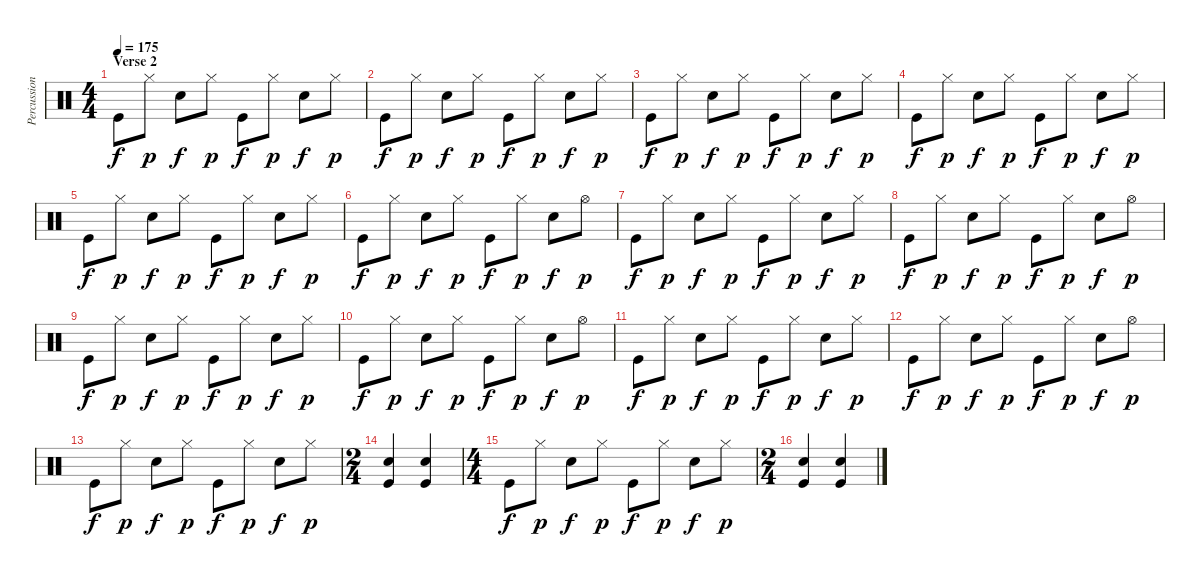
\track ("Percussion" "Percussion") {instrument percussion}
\staff {score}
\articulation defaults
\ts (4 4)
\section ("" "Verse 2")
\tempo 175
\clef neutral
\ks c "Kick (hit)".8{dy f} "Hi-Hat (closed)".8{dy p} "Snare (hit) 2".8{dy f} "Hi-Hat (closed)".8{dy p} "Kick (hit)".8{dy f} "Hi-Hat (closed)".8{dy p} "Snare (hit) 2".8{dy f} "Hi-Hat (closed)".8{dy p}
|
"Kick (hit)".8{dy f} "Hi-Hat (closed)".8{dy p} "Snare (hit) 2".8{dy f} "Hi-Hat (closed)".8{dy p} "Kick (hit)".8{dy f} "Hi-Hat (closed)".8{dy p} "Snare (hit) 2".8{dy f} "Hi-Hat (closed)".8{dy p} |
"Kick (hit)".8{dy f} "Hi-Hat (closed)".8{dy p} "Snare (hit) 2".8{dy f} "Hi-Hat (closed)".8{dy p} "Kick (hit)".8{dy f} "Hi-Hat (closed)".8{dy p} "Snare (hit) 2".8{dy f} "Hi-Hat (closed)".8{dy p} |
"Kick (hit)".8{dy f} "Hi-Hat (closed)".8{dy p} "Snare (hit) 2".8{dy f} "Hi-Hat (closed)".8{dy p} "Kick (hit)".8{dy f} "Hi-Hat (closed)".8{dy p} "Snare (hit) 2".8{dy f} "Hi-Hat (closed)".8{dy p} |
"Kick (hit)".8{dy f} "Hi-Hat (closed)".8{dy p} "Snare (hit) 2".8{dy f} "Hi-Hat (closed)".8{dy p} "Kick (hit)".8{dy f} "Hi-Hat (closed)".8{dy p} "Snare (hit) 2".8{dy f} "Hi-Hat (closed)".8{dy p} |
"Kick (hit)".8{dy f} "Hi-Hat (closed)".8{dy p} "Snare (hit) 2".8{dy f} "Hi-Hat (closed)".8{dy p} "Kick (hit)".8{dy f} "Hi-Hat (closed)".8{dy p} "Snare (hit) 2".8{dy f} "Hi-Hat (open)".8{dy p} |
"Kick (hit)".8{dy f} "Hi-Hat (closed)".8{dy p} "Snare (hit) 2".8{dy f} "Hi-Hat (closed)".8{dy p} "Kick (hit)".8{dy f} "Hi-Hat (closed)".8{dy p} "Snare (hit) 2".8{dy f} "Hi-Hat (closed)".8{dy p} |
"Kick (hit)".8{dy f} "Hi-Hat (closed)".8{dy p} "Snare (hit) 2".8{dy f} "Hi-Hat (closed)".8{dy p} "Kick (hit)".8{dy f} "Hi-Hat (closed)".8{dy p} "Snare (hit) 2".8{dy f} "Hi-Hat (open)".8{dy p} |
"Kick (hit)".8{dy f} "Hi-Hat (closed)".8{dy p} "Snare (hit) 2".8{dy f} "Hi-Hat (closed)".8{dy p} "Kick (hit)".8{dy f} "Hi-Hat (closed)".8{dy p} "Snare (hit) 2".8{dy f} "Hi-Hat (closed)".8{dy p} |
"Kick (hit)".8{dy f} "Hi-Hat (closed)".8{dy p} "Snare (hit) 2".8{dy f} "Hi-Hat (closed)".8{dy p} "Kick (hit)".8{dy f} "Hi-Hat (closed)".8{dy p} "Snare (hit) 2".8{dy f} "Hi-Hat (open)".8{dy p} |
"Kick (hit)".8{dy f} "Hi-Hat (closed)".8{dy p} "Snare (hit) 2".8{dy f} "Hi-Hat (closed)".8{dy p} "Kick (hit)".8{dy f} "Hi-Hat (closed)".8{dy p} "Snare (hit) 2".8{dy f} "Hi-Hat (closed)".8{dy p} |
"Kick (hit)".8{dy f} "Hi-Hat (closed)".8{dy p} "Snare (hit) 2".8{dy f} "Hi-Hat (closed)".8{dy p} "Kick (hit)".8{dy f} "Hi-Hat (closed)".8{dy p} "Snare (hit) 2".8{dy f} "Hi-Hat (open)".8{dy p} |
"Kick (hit)".8{dy f} "Hi-Hat (closed)".8{dy p} "Snare (hit) 2".8{dy f} "Hi-Hat (closed)".8{dy p} "Kick (hit)".8{dy f} "Hi-Hat (closed)".8{dy p} "Snare (hit) 2".8{dy f} "Hi-Hat (closed)".8{dy p} |
\ts (2 4)
("Snare (hit) 2" "Kick (hit)").4 ("Snare (hit) 2" "Kick (hit)").4 |
\ts (4 4)
"Kick (hit)".8{dy f} "Hi-Hat (closed)".8{dy p} "Snare (hit) 2".8{dy f} "Hi-Hat (closed)".8{dy p} "Kick (hit)".8{dy f} "Hi-Hat (closed)".8{dy p} "Snare (hit) 2".8{dy f} "Hi-Hat (closed)".8{dy p} |
\ts (2 4)
("Snare (hit) 2" "Kick (hit)").4 ("Snare (hit) 2" "Kick (hit)").4
